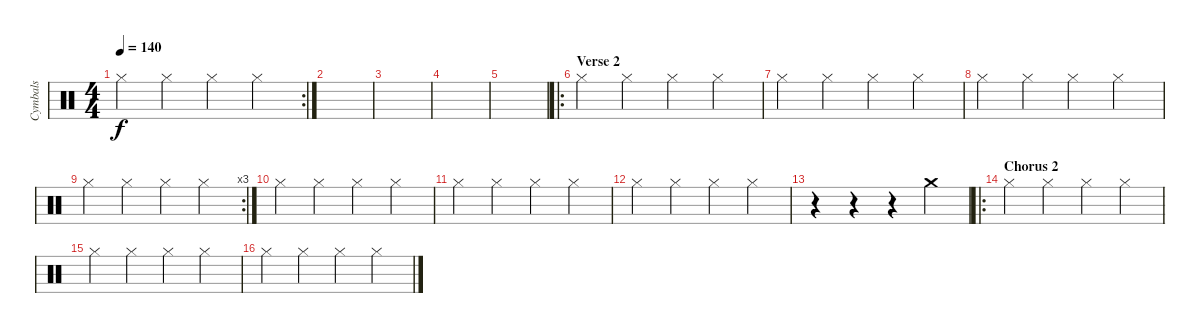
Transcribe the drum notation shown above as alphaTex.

\track ("Cymbals" "Cymbals") {instrument percussion}
\staff {score}
\articulation defaults
\rc 2
\ts (4 4)
\tempo 140
\clef neutral
\ks c "Hi-Hat (closed)".4{dy f} "Hi-Hat (closed)".4 "Hi-Hat (closed)".4 "Hi-Hat (closed)".4
|
|
|
|
|
\ro
\section ("" "Verse 2")
"Hi-Hat (closed)".4 "Hi-Hat (closed)".4 "Hi-Hat (closed)".4 "Hi-Hat (closed)".4 |
"Hi-Hat (closed)".4 "Hi-Hat (closed)".4 "Hi-Hat (closed)".4 "Hi-Hat (closed)".4 |
"Hi-Hat (closed)".4 "Hi-Hat (closed)".4 "Hi-Hat (closed)".4 "Hi-Hat (closed)".4 |
\rc 3 "Hi-Hat (closed)".4 "Hi-Hat (closed)".4 "Hi-Hat (closed)".4 "Hi-Hat (closed)".4
|
"Hi-Hat (closed)".4 "Hi-Hat (closed)".4 "Hi-Hat (closed)".4 "Hi-Hat (closed)".4 |
"Hi-Hat (closed)".4 "Hi-Hat (closed)".4 "Hi-Hat (closed)".4 "Hi-Hat (closed)".4 |
"Hi-Hat (closed)".4 "Hi-Hat (closed)".4 "Hi-Hat (closed)".4 "Hi-Hat (closed)".4 |
r.4 r.4 r.4 "Crash medium (hit)".4 |
\ro
\section ("" "Chorus 2")
"Hi-Hat (closed)".4 "Hi-Hat (closed)".4 "Hi-Hat (closed)".4 "Hi-Hat (closed)".4 |
"Hi-Hat (closed)".4 "Hi-Hat (closed)".4 "Hi-Hat (closed)".4 "Hi-Hat (closed)".4 |
"Hi-Hat (closed)".4 "Hi-Hat (closed)".4 "Hi-Hat (closed)".4 "Hi-Hat (closed)".4
